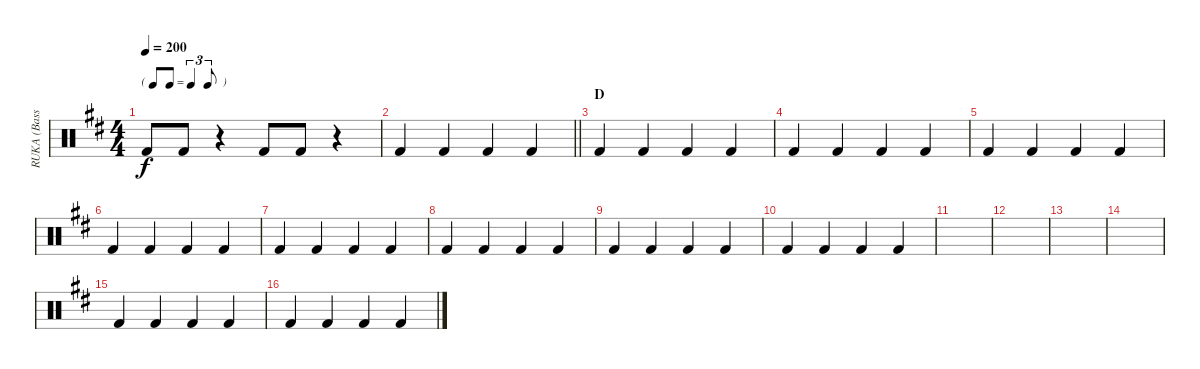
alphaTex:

\track ("RUKA (Bass)" "RUKA (Bass") {instrument percussion}
\staff {score}
\articulation defaults
\ts (4 4)
\tf triplet8th
\tempo 200
\clef neutral
\ks d "Kick (hit) 2".8{dy f} "Kick (hit) 2".8
r.4 "Kick (hit) 2".8 "Kick (hit) 2".8 r.4 |
\barLineRight lightlight "Kick (hit) 2".4 "Kick (hit) 2".4 "Kick (hit) 2".4 "Kick (hit) 2".4
|
\section ("" "D")
"Kick (hit) 2".4 "Kick (hit) 2".4 "Kick (hit) 2".4 "Kick (hit) 2".4 |
"Kick (hit) 2".4 "Kick (hit) 2".4 "Kick (hit) 2".4 "Kick (hit) 2".4 |
"Kick (hit) 2".4 "Kick (hit) 2".4 "Kick (hit) 2".4 "Kick (hit) 2".4 |
"Kick (hit) 2".4 "Kick (hit) 2".4 "Kick (hit) 2".4 "Kick (hit) 2".4 |
"Kick (hit) 2".4 "Kick (hit) 2".4 "Kick (hit) 2".4 "Kick (hit) 2".4 |
"Kick (hit) 2".4 "Kick (hit) 2".4 "Kick (hit) 2".4 "Kick (hit) 2".4 |
"Kick (hit) 2".4 "Kick (hit) 2".4 "Kick (hit) 2".4 "Kick (hit) 2".4 |
"Kick (hit) 2".4 "Kick (hit) 2".4 "Kick (hit) 2".4 "Kick (hit) 2".4 |
|
|
|
|
"Kick (hit) 2".4 "Kick (hit) 2".4 "Kick (hit) 2".4 "Kick (hit) 2".4 |
"Kick (hit) 2".4 "Kick (hit) 2".4 "Kick (hit) 2".4 "Kick (hit) 2".4
